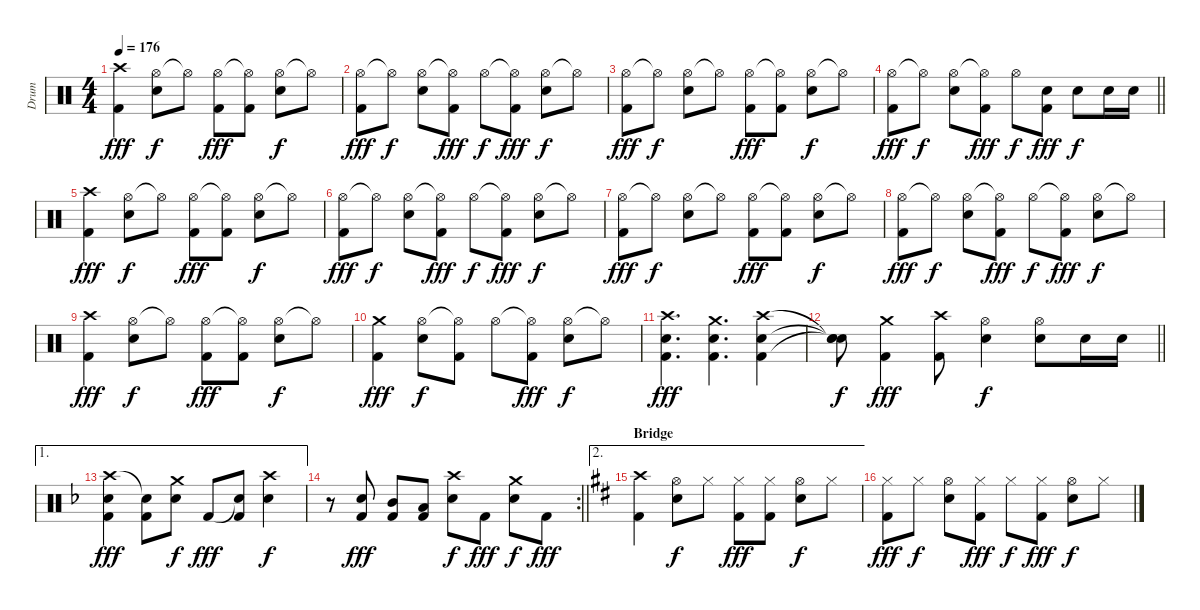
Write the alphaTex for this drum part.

\track ("Drum" "Drum") {instrument percussion}
\staff {score}
\articulation defaults
\ts (4 4)
\tempo 176
\clef neutral
\ks c
("Crash high (hit)" "Kick (hit) 2").4{dy fff} ("Hi-Hat (open)" "Snare (hit) 2").8{dy f} "Hi-Hat (open)"{t}.8 ("Hi-Hat (open)" "Kick (hit) 2").8{dy fff} ("Hi-Hat (open)"{t} "Kick (hit) 2").8 ("Hi-Hat (open)" "Snare (hit) 2").8{dy f} "Hi-Hat (open)"{t}.8 |
("Hi-Hat (open)" "Kick (hit) 2").8{dy fff} "Hi-Hat (open)"{t}.8{dy f} ("Hi-Hat (open)" "Snare (hit) 2").8 ("Hi-Hat (open)"{t} "Kick (hit) 2").8{dy fff} "Hi-Hat (open)".8{dy f} ("Hi-Hat (open)"{t} "Kick (hit) 2").8{dy fff} ("Hi-Hat (open)" "Snare (hit) 2").8{dy f} "Hi-Hat (open)"{t}.8 |
("Hi-Hat (open)" "Kick (hit) 2").8{dy fff} "Hi-Hat (open)"{t}.8{dy f} ("Hi-Hat (open)" "Snare (hit) 2").8 "Hi-Hat (open)"{t}.8 ("Hi-Hat (open)" "Kick (hit) 2").8{dy fff} ("Hi-Hat (open)"{t} "Kick (hit) 2").8 ("Hi-Hat (open)" "Snare (hit) 2").8{dy f} "Hi-Hat (open)"{t}.8 |
\barLineRight lightlight
("Hi-Hat (open)" "Kick (hit) 2").8{dy fff} "Hi-Hat (open)"{t}.8{dy f} ("Hi-Hat (open)" "Snare (hit) 2").8 ("Hi-Hat (open)"{t} "Kick (hit) 2").8{dy fff} "Hi-Hat (open)".8{dy f} ("Snare (hit) 2" "Kick (hit) 2").8{dy fff} "Snare (hit) 2".8{dy f} "Snare (hit) 2".16 "Snare (hit) 2".16 |
("Crash high (hit)" "Kick (hit) 2").4{dy fff} ("Hi-Hat (open)" "Snare (hit) 2").8{dy f} "Hi-Hat (open)"{t}.8 ("Hi-Hat (open)" "Kick (hit) 2").8{dy fff} ("Hi-Hat (open)"{t} "Kick (hit) 2").8 ("Hi-Hat (open)" "Snare (hit) 2").8{dy f} "Hi-Hat (open)"{t}.8 |
("Hi-Hat (open)" "Kick (hit) 2").8{dy fff} "Hi-Hat (open)"{t}.8{dy f} ("Hi-Hat (open)" "Snare (hit) 2").8 ("Hi-Hat (open)"{t} "Kick (hit) 2").8{dy fff} "Hi-Hat (open)".8{dy f} ("Hi-Hat (open)"{t} "Kick (hit) 2").8{dy fff} ("Hi-Hat (open)" "Snare (hit) 2").8{dy f} "Hi-Hat (open)"{t}.8 |
("Hi-Hat (open)" "Kick (hit) 2").8{dy fff} "Hi-Hat (open)"{t}.8{dy f} ("Hi-Hat (open)" "Snare (hit) 2").8 "Hi-Hat (open)"{t}.8 ("Hi-Hat (open)" "Kick (hit) 2").8{dy fff} ("Hi-Hat (open)"{t} "Kick (hit) 2").8 ("Hi-Hat (open)" "Snare (hit) 2").8{dy f} "Hi-Hat (open)"{t}.8 |
("Hi-Hat (open)" "Kick (hit) 2").8{dy fff} "Hi-Hat (open)"{t}.8{dy f} ("Hi-Hat (open)" "Snare (hit) 2").8 ("Hi-Hat (open)"{t} "Kick (hit) 2").8{dy fff} "Hi-Hat (open)".8{dy f} ("Hi-Hat (open)"{t} "Kick (hit) 2").8{dy fff} ("Hi-Hat (open)" "Snare (hit) 2").8{dy f} "Hi-Hat (open)"{t}.8 |
("Crash high (hit)" "Kick (hit) 2").4{dy fff} ("Hi-Hat (open)" "Snare (hit) 2").8{dy f} "Hi-Hat (open)"{t}.8 ("Hi-Hat (open)" "Kick (hit) 2").8{dy fff} ("Hi-Hat (open)"{t} "Kick (hit) 2").8 ("Hi-Hat (open)" "Snare (hit) 2").8{dy f} "Hi-Hat (open)"{t}.8 |
("Crash medium (hit)" "Kick (hit) 2").4{dy fff} ("Hi-Hat (open)" "Snare (hit) 2").8{dy f} ("Hi-Hat (open)"{t} "Kick (hit) 2").8 "Hi-Hat (open)".8 ("Hi-Hat (open)"{t} "Kick (hit) 2").8{dy fff} ("Hi-Hat (open)" "Snare (hit) 2").8{dy f} "Hi-Hat (open)"{t}.8 |
("Crash high (hit)" "Snare (hit) 2" "Kick (hit) 2").4{d dy fff} ("Crash medium (hit)" "Snare (hit) 2" "Kick (hit) 2").4{d} ("Crash high (hit)" "Snare (hit) 2" "Kick (hit) 2").4 |
\barLineRight lightlight
("Snare (hit)"{t} "Snare (hit)"{t} "Snare (hit)"{t}).8{dy f} ("Crash medium (hit)" "Kick (hit) 2").4{dy fff} ("Crash high (hit)" "Kick (hit) 2").8 ("Hi-Hat (open)" "Snare (hit) 2").4{dy f} ("Hi-Hat (open)" "Snare (hit) 2").8 "Snare (hit) 2".16 "Snare (hit) 2".16 |
\ae 1
\ks f
("Crash high (hit)" "Snare (hit) 2" "Kick (hit) 2").4{dy fff} ("Snare (hit)"{t} "Kick (hit) 2").8 ("Crash medium (hit)" "Snare (hit) 2").8{dy f} "Kick (hit) 2".8{dy fff} ("Snare (hit)"{t} "Kick (hit) 2").8 ("Crash high (hit)" "Snare (hit) 2").4{dy f} |
\rc 2
\barLineRight lightlight
r.8 ("Snare (hit) 2" "Kick (hit) 2").8{dy fff} ("Mid Tom (hit)" "Kick (hit) 2").8 ("Low Tom (hit)" "Kick (hit) 2").8 ("Crash high (hit)" "Snare (hit) 2").8{dy f} "Kick (hit) 2".8{dy fff} ("Crash medium (hit)" "Snare (hit) 2").8{dy f} "Kick (hit) 2".8{dy fff} |
\ae 2
\section ("" "Bridge")
\ks d
("Crash high (hit)" "Kick (hit) 2").4 ("Hi-Hat (open)" "Snare (hit) 2").8{dy f} "Hi-Hat (closed)".8 ("Hi-Hat (closed)" "Kick (hit) 2").8{dy fff} ("Hi-Hat (closed)" "Kick (hit) 2").8 ("Hi-Hat (open)" "Snare (hit) 2").8{dy f} "Hi-Hat (closed)".8 |
("Hi-Hat (closed)" "Kick (hit) 2").8{dy fff} "Hi-Hat (closed)".8{dy f} ("Hi-Hat (open)" "Snare (hit) 2").8 ("Hi-Hat (closed)" "Kick (hit) 2").8{dy fff} "Hi-Hat (closed)".8{dy f} ("Hi-Hat (closed)" "Kick (hit) 2").8{dy fff} ("Hi-Hat (open)" "Snare (hit) 2").8{dy f} "Hi-Hat (closed)".8
